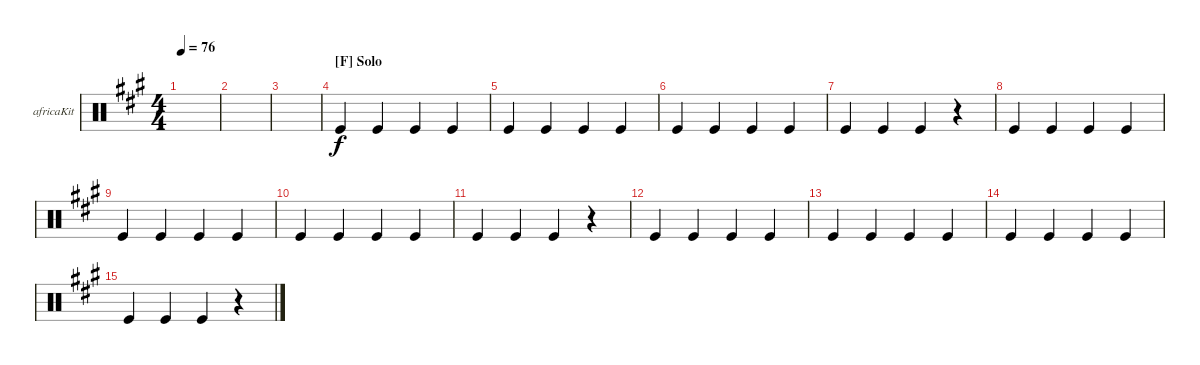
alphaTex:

\defaultSystemsLayout 4
\bracketExtendMode groupsimilarinstruments
\firstSystemTrackNameOrientation horizontal
\otherSystemsTrackNameOrientation horizontal
\track ("Kit-Africa" "africaKit") {instrument percussion}
\staff {score}
\articulation defaults
\ts (4 4)
\tempo 76
\clef neutral
\scale
0.941992
\ks a
|
\scale
1.09962 |
\scale
0.900378 |
\section ("F" "Solo")
\scale
1.05801 "Kick (hit)".4 "Kick (hit)".4 "Kick (hit)".4 "Kick (hit)".4 |
\scale
0.941992 "Kick (hit)".4 "Kick (hit)".4 "Kick (hit)".4 "Kick (hit)".4 |
\scale
1.05801 "Kick (hit)".4 "Kick (hit)".4 "Kick (hit)".4 "Kick (hit)".4 |
\scale
0.941992 "Kick (hit)".4 "Kick (hit)".4 "Kick (hit)".4 r.4 |
\scale
1.05801 "Kick (hit)".4 "Kick (hit)".4 "Kick (hit)".4 "Kick (hit)".4 |
\scale
0.941992 "Kick (hit)".4 "Kick (hit)".4 "Kick (hit)".4 "Kick (hit)".4 |
\scale
1.05801 "Kick (hit)".4 "Kick (hit)".4 "Kick (hit)".4 "Kick (hit)".4 |
\scale
0.941992 "Kick (hit)".4 "Kick (hit)".4 "Kick (hit)".4 r.4 |
\scale
1.05801 "Kick (hit)".4 "Kick (hit)".4 "Kick (hit)".4 "Kick (hit)".4 |
\scale
0.941992 "Kick (hit)".4 "Kick (hit)".4 "Kick (hit)".4 "Kick (hit)".4 |
\scale
1.05801 "Kick (hit)".4 "Kick (hit)".4 "Kick (hit)".4 "Kick (hit)".4 |
\scale
0.941992 "Kick (hit)".4 "Kick (hit)".4 "Kick (hit)".4 r.4
